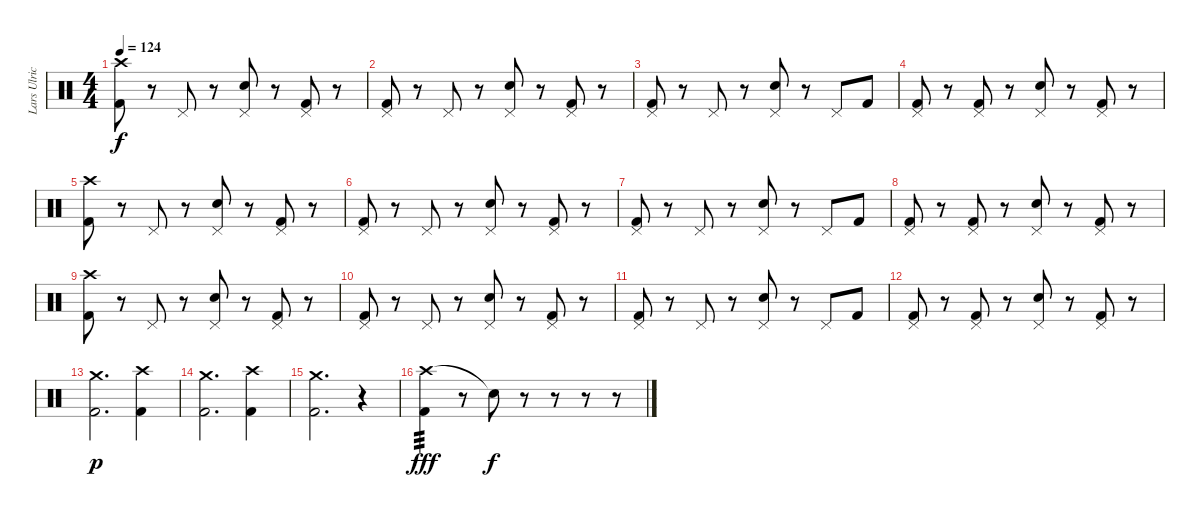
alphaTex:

\track ("Lars Ulrich" "Lars Ulric") {instrument percussion}
\staff {score}
\articulation defaults
\ts (4 4)
\tempo 124
\clef neutral
\ks c
("Crash high (hit)" "Kick (hit) 2").8{dy f} r.8 "Pedal Hi-Hat (hit)".8 r.8 ("Pedal Hi-Hat (hit)" "Electric Snare (hit)").8 r.8 ("Pedal Hi-Hat (hit)" "Kick (hit) 2").8 r.8 |
("Pedal Hi-Hat (hit)" "Kick (hit) 2").8 r.8 "Pedal Hi-Hat (hit)".8 r.8 ("Pedal Hi-Hat (hit)" "Electric Snare (hit)").8 r.8 ("Pedal Hi-Hat (hit)" "Kick (hit) 2").8 r.8 |
("Pedal Hi-Hat (hit)" "Kick (hit) 2").8 r.8 "Pedal Hi-Hat (hit)".8 r.8 ("Pedal Hi-Hat (hit)" "Electric Snare (hit)").8 r.8 "Pedal Hi-Hat (hit)".8 "Kick (hit) 2".8 |
("Pedal Hi-Hat (hit)" "Kick (hit) 2").8 r.8 ("Pedal Hi-Hat (hit)" "Kick (hit) 2").8 r.8 ("Pedal Hi-Hat (hit)" "Electric Snare (hit)").8 r.8 ("Pedal Hi-Hat (hit)" "Kick (hit) 2").8 r.8 |
("Crash high (hit)" "Kick (hit) 2").8 r.8 "Pedal Hi-Hat (hit)".8 r.8 ("Pedal Hi-Hat (hit)" "Electric Snare (hit)").8 r.8 ("Pedal Hi-Hat (hit)" "Kick (hit) 2").8 r.8 |
("Pedal Hi-Hat (hit)" "Kick (hit) 2").8 r.8 "Pedal Hi-Hat (hit)".8 r.8 ("Pedal Hi-Hat (hit)" "Electric Snare (hit)").8 r.8 ("Pedal Hi-Hat (hit)" "Kick (hit) 2").8 r.8 |
("Pedal Hi-Hat (hit)" "Kick (hit) 2").8 r.8 "Pedal Hi-Hat (hit)".8 r.8 ("Pedal Hi-Hat (hit)" "Electric Snare (hit)").8 r.8 "Pedal Hi-Hat (hit)".8 "Kick (hit) 2".8 |
("Pedal Hi-Hat (hit)" "Kick (hit) 2").8 r.8 ("Pedal Hi-Hat (hit)" "Kick (hit) 2").8 r.8 ("Pedal Hi-Hat (hit)" "Electric Snare (hit)").8 r.8 ("Pedal Hi-Hat (hit)" "Kick (hit) 2").8 r.8 |
("Crash high (hit)" "Kick (hit) 2").8 r.8 "Pedal Hi-Hat (hit)".8 r.8 ("Pedal Hi-Hat (hit)" "Electric Snare (hit)").8 r.8 ("Pedal Hi-Hat (hit)" "Kick (hit) 2").8 r.8 |
("Pedal Hi-Hat (hit)" "Kick (hit) 2").8 r.8 "Pedal Hi-Hat (hit)".8 r.8 ("Pedal Hi-Hat (hit)" "Electric Snare (hit)").8 r.8 ("Pedal Hi-Hat (hit)" "Kick (hit) 2").8 r.8 |
("Pedal Hi-Hat (hit)" "Kick (hit) 2").8 r.8 "Pedal Hi-Hat (hit)".8 r.8 ("Pedal Hi-Hat (hit)" "Electric Snare (hit)").8 r.8 "Pedal Hi-Hat (hit)".8 "Kick (hit) 2".8 |
("Pedal Hi-Hat (hit)" "Kick (hit) 2").8 r.8 ("Pedal Hi-Hat (hit)" "Kick (hit) 2").8 r.8 ("Pedal Hi-Hat (hit)" "Electric Snare (hit)").8 r.8 ("Pedal Hi-Hat (hit)" "Kick (hit) 2").8 r.8 |
("Crash medium (hit)" "Kick (hit) 2").2{d dy p} ("Crash high (hit)" "Kick (hit) 2").4 |
("Crash medium (hit)" "Kick (hit) 2").2{d} ("Crash high (hit)" "Kick (hit) 2").4 |
("Crash medium (hit)" "Kick (hit) 2").2{d} r.4 |
("Crash high (hit)" "Kick (hit) 2").4{tp 3 dy fff} r.8 "Snare (hit)"{t}.8{dy f} r.8 r.8 r.8 r.8
